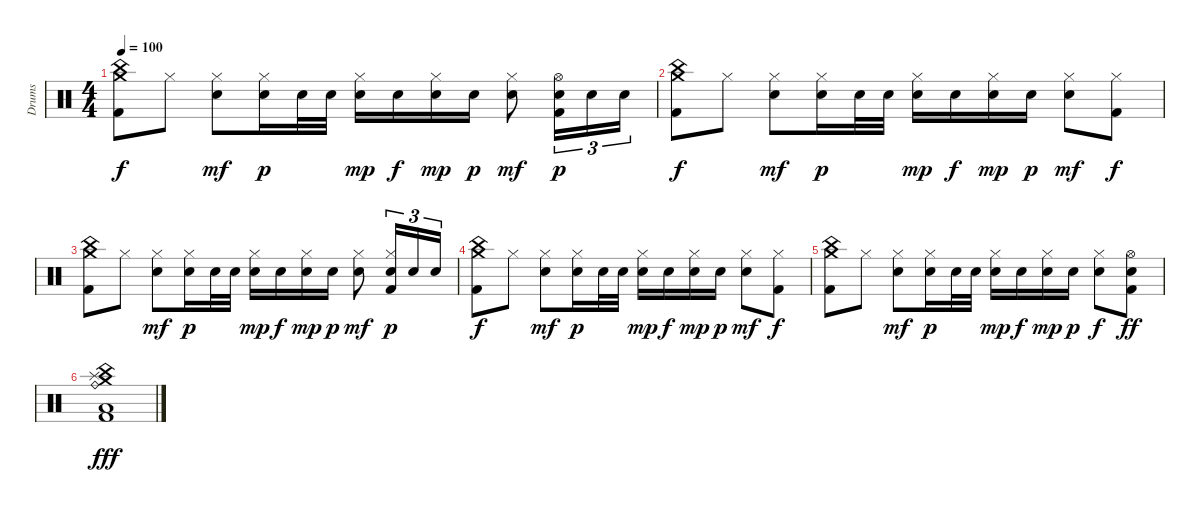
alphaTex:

\track ("Drums" "Drums") {instrument percussion}
\staff {score}
\articulation defaults
\ts (4 4)
\tempo 100
\clef neutral
\ks c
("China (hit)" "Crash medium (hit)" "Kick (hit) 2").8{dy f} "Hi-Hat (closed)".8 ("Hi-Hat (closed)" "Electric Snare (hit)").8{dy mf} ("Hi-Hat (closed)" "Electric Snare (hit)").16{dy p} "Electric Snare (hit)".32 "Electric Snare (hit)".32 ("Hi-Hat (closed)" "Electric Snare (hit)").16{dy mp} "Electric Snare (hit)".16{dy f} ("Hi-Hat (closed)" "Electric Snare (hit)").16{dy mp} "Electric Snare (hit)".16{dy p} ("Hi-Hat (closed)" "Electric Snare (hit)").8{dy mf} ("Hi-Hat (open)" "Electric Snare (hit)" "Kick (hit) 2").16{tu (3 2) dy p} "Electric Snare (hit)".16{tu (3 2)} "Electric Snare (hit)".16{tu (3 2)} |
("China (hit)" "Crash medium (hit)" "Kick (hit) 2").8{dy f} "Hi-Hat (closed)".8 ("Hi-Hat (closed)" "Electric Snare (hit)").8{dy mf} ("Hi-Hat (closed)" "Electric Snare (hit)").16{dy p} "Electric Snare (hit)".32 "Electric Snare (hit)".32 ("Hi-Hat (closed)" "Electric Snare (hit)").16{dy mp} "Electric Snare (hit)".16{dy f} ("Hi-Hat (closed)" "Electric Snare (hit)").16{dy mp} "Electric Snare (hit)".16{dy p} ("Hi-Hat (closed)" "Electric Snare (hit)").8{dy mf} ("Hi-Hat (closed)" "Kick (hit) 2").8{dy f} |
("China (hit)" "Crash medium (hit)" "Kick (hit) 2").8 "Hi-Hat (closed)".8 ("Hi-Hat (closed)" "Electric Snare (hit)").8{dy mf} ("Hi-Hat (closed)" "Electric Snare (hit)").16{dy p} "Electric Snare (hit)".32 "Electric Snare (hit)".32 ("Hi-Hat (closed)" "Electric Snare (hit)").16{dy mp} "Electric Snare (hit)".16{dy f} ("Hi-Hat (closed)" "Electric Snare (hit)").16{dy mp} "Electric Snare (hit)".16{dy p} ("Hi-Hat (closed)" "Electric Snare (hit)").8{dy mf} ("Hi-Hat (closed)" "Electric Snare (hit)" "Kick (hit) 2").16{tu (3 2) dy p} "Electric Snare (hit)".16{tu (3 2)} "Electric Snare (hit)".16{tu (3 2)} |
("China (hit)" "Crash medium (hit)" "Kick (hit) 2").8{dy f} "Hi-Hat (closed)".8 ("Hi-Hat (closed)" "Electric Snare (hit)").8{dy mf} ("Hi-Hat (closed)" "Electric Snare (hit)").16{dy p} "Electric Snare (hit)".32 "Electric Snare (hit)".32 ("Hi-Hat (closed)" "Electric Snare (hit)").16{dy mp} "Electric Snare (hit)".16{dy f} ("Hi-Hat (closed)" "Electric Snare (hit)").16{dy mp} "Electric Snare (hit)".16{dy p} ("Hi-Hat (closed)" "Electric Snare (hit)").8{dy mf} ("Hi-Hat (closed)" "Kick (hit) 2").8{dy f} |
("China (hit)" "Crash medium (hit)" "Kick (hit) 2").8 "Hi-Hat (closed)".8 ("Hi-Hat (closed)" "Electric Snare (hit)").8{dy mf} ("Hi-Hat (closed)" "Electric Snare (hit)").16{dy p} "Electric Snare (hit)".32 "Electric Snare (hit)".32 ("Hi-Hat (closed)" "Electric Snare (hit)").16{dy mp} "Electric Snare (hit)".16{dy f} ("Hi-Hat (closed)" "Electric Snare (hit)").16{dy mp} "Electric Snare (hit)".16{dy p} ("Hi-Hat (closed)" "Electric Snare (hit)").8{dy f} ("Hi-Hat (open)" "Electric Snare (hit)" "Kick (hit) 2").8{dy ff} |
("Crash medium (hit)" "China (hit)" "Splash (hit)" "Ride (bell)" "Low Floor Tom (hit)" "Kick (hit) 2").1{dy fff}
